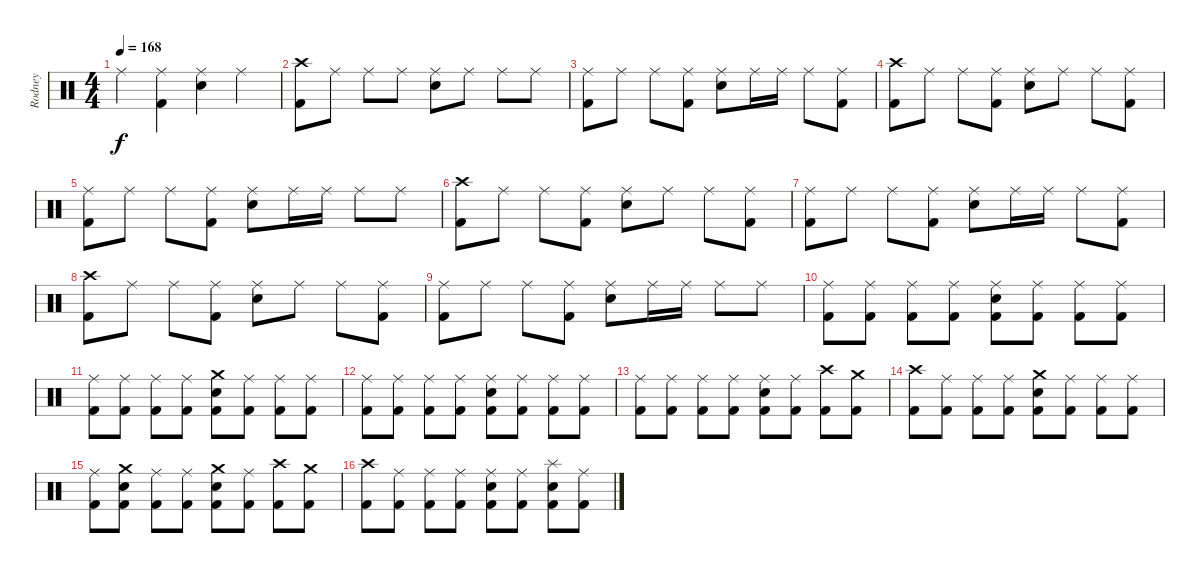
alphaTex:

\track ("Rodney" "Rodney") {instrument percussion}
\staff {score}
\articulation defaults
\ts (4 4)
\tempo 168
\clef neutral
\ks c "Ride (middle)".4{dy f}
("Ride (middle)" "Kick (hit) 2").4 ("Ride (middle)" "Snare (hit) 2").4 "Ride (middle)".4 |
("Crash high (hit)" "Kick (hit) 2").8 "Ride (middle)".8 "Ride (middle)".8 "Ride (middle)".8 ("Ride (middle)" "Snare (hit) 2").8 "Ride (middle)".8 "Ride (middle)".8 "Ride (middle)".8 |
("Ride (middle)" "Kick (hit) 2").8 "Ride (middle)".8 "Ride (middle)".8 ("Ride (middle)" "Kick (hit) 2").8 ("Ride (middle)" "Snare (hit) 2").8 "Ride (middle)".16 "Ride (middle)".16 "Ride (middle)".8 ("Ride (middle)" "Kick (hit) 2").8 |
("Crash high (hit)" "Kick (hit) 2").8 "Ride (middle)".8 "Ride (middle)".8 ("Ride (middle)" "Kick (hit) 2").8 ("Ride (middle)" "Snare (hit) 2").8 "Ride (middle)".8 "Ride (middle)".8 ("Ride (middle)" "Kick (hit) 2").8 |
("Ride (middle)" "Kick (hit) 2").8 "Ride (middle)".8 "Ride (middle)".8 ("Ride (middle)" "Kick (hit) 2").8 ("Ride (middle)" "Snare (hit) 2").8 "Ride (middle)".16 "Ride (middle)".16 "Ride (middle)".8 "Ride (middle)".8 |
("Crash high (hit)" "Kick (hit) 2").8 "Ride (middle)".8 "Ride (middle)".8 ("Ride (middle)" "Kick (hit) 2").8 ("Ride (middle)" "Snare (hit) 2").8 "Ride (middle)".8 "Ride (middle)".8 ("Ride (middle)" "Kick (hit) 2").8 |
("Ride (middle)" "Kick (hit) 2").8 "Ride (middle)".8 "Ride (middle)".8 ("Ride (middle)" "Kick (hit) 2").8 ("Ride (middle)" "Snare (hit) 2").8 "Ride (middle)".16 "Ride (middle)".16 "Ride (middle)".8 ("Ride (middle)" "Kick (hit) 2").8 |
("Crash high (hit)" "Kick (hit) 2").8 "Ride (middle)".8 "Ride (middle)".8 ("Ride (middle)" "Kick (hit) 2").8 ("Ride (middle)" "Snare (hit) 2").8 "Ride (middle)".8 "Ride (middle)".8 ("Ride (middle)" "Kick (hit) 2").8 |
("Ride (middle)" "Kick (hit) 2").8 "Ride (middle)".8 "Ride (middle)".8 ("Ride (middle)" "Kick (hit) 2").8 ("Ride (middle)" "Snare (hit) 2").8 "Ride (middle)".16 "Ride (middle)".16 "Ride (middle)".8 "Ride (middle)".8 |
("Ride (middle)" "Kick (hit) 2").8 ("Ride (middle)" "Kick (hit) 2").8 ("Ride (middle)" "Kick (hit) 2").8 ("Ride (middle)" "Kick (hit) 2").8 ("Ride (middle)" "Snare (hit) 2" "Kick (hit) 2").8 ("Ride (middle)" "Kick (hit) 2").8 ("Ride (middle)" "Kick (hit) 2").8 ("Ride (middle)" "Kick (hit) 2").8 |
("Ride (middle)" "Kick (hit) 2").8 ("Ride (middle)" "Kick (hit) 2").8 ("Ride (middle)" "Kick (hit) 2").8 ("Ride (middle)" "Kick (hit) 2").8 ("Crash medium (hit)" "Snare (hit) 2" "Kick (hit) 2").8 ("Ride (middle)" "Kick (hit) 2").8 ("Ride (middle)" "Kick (hit) 2").8 ("Ride (middle)" "Kick (hit) 2").8 |
("Ride (middle)" "Kick (hit) 2").8 ("Ride (middle)" "Kick (hit) 2").8 ("Ride (middle)" "Kick (hit) 2").8 ("Ride (middle)" "Kick (hit) 2").8 ("Ride (middle)" "Snare (hit) 2" "Kick (hit) 2").8 ("Ride (middle)" "Kick (hit) 2").8 ("Ride (middle)" "Kick (hit) 2").8 ("Ride (middle)" "Kick (hit) 2").8 |
("Ride (middle)" "Kick (hit) 2").8 ("Ride (middle)" "Kick (hit) 2").8 ("Ride (middle)" "Kick (hit) 2").8 ("Ride (middle)" "Kick (hit) 2").8 ("Ride (middle)" "Snare (hit) 2" "Kick (hit) 2").8 ("Ride (middle)" "Kick (hit) 2").8 ("Crash high (hit)" "Kick (hit) 2").8 ("Crash medium (hit)" "Kick (hit) 2").8 |
("Crash high (hit)" "Kick (hit) 2").8 ("Ride (middle)" "Kick (hit) 2").8 ("Ride (middle)" "Kick (hit) 2").8 ("Ride (middle)" "Kick (hit) 2").8 ("Crash medium (hit)" "Snare (hit) 2" "Kick (hit) 2").8 ("Ride (middle)" "Kick (hit) 2").8 ("Ride (middle)" "Kick (hit) 2").8 ("Ride (middle)" "Kick (hit) 2").8 |
("Ride (middle)" "Kick (hit) 2").8 ("Crash medium (hit)" "Snare (hit) 2" "Kick (hit) 2").8 ("Ride (middle)" "Kick (hit) 2").8 ("Ride (middle)" "Kick (hit) 2").8 ("Crash medium (hit)" "Snare (hit) 2" "Kick (hit) 2").8 ("Ride (middle)" "Kick (hit) 2").8 ("Crash high (hit)" "Kick (hit) 2").8 ("Crash medium (hit)" "Kick (hit) 2").8 |
("Crash high (hit)" "Kick (hit) 2").8 ("Ride (middle)" "Kick (hit) 2").8 ("Ride (middle)" "Kick (hit) 2").8 ("Ride (middle)" "Kick (hit) 2").8 ("Ride (middle)" "Snare (hit) 2" "Kick (hit) 2").8 ("Ride (middle)" "Kick (hit) 2").8 ("Splash (hit)" "Snare (hit) 2" "Kick (hit) 2").8 ("Ride (middle)" "Kick (hit) 2").8
